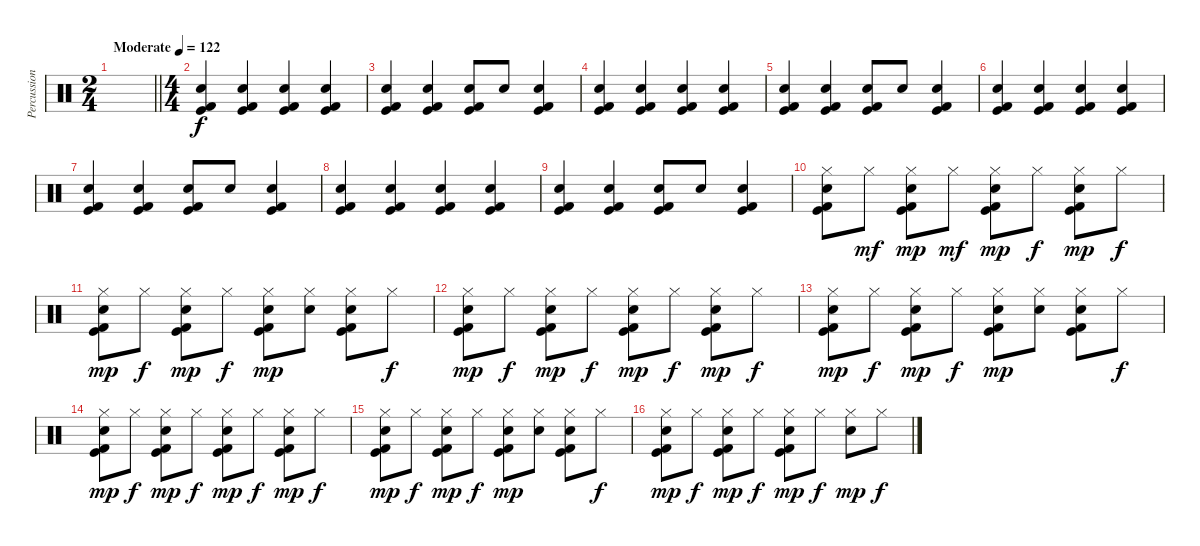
\track ("Percussion" "Percussion") {instrument percussion}
\staff {score}
\articulation defaults
\ts (2 4)
\tempo (122 "Moderate")
\clef neutral
\barLineRight lightlight
\ks c
|
\ts (4 4)
\section ("" "")
("Hand Clap (hit)" "Kick (hit)" "Kick (hit) 2").4 ("Hand Clap (hit)" "Kick (hit)" "Kick (hit) 2").4 ("Hand Clap (hit)" "Kick (hit)" "Kick (hit) 2").4 ("Hand Clap (hit)" "Kick (hit)" "Kick (hit) 2").4 |
("Hand Clap (hit)" "Kick (hit)" "Kick (hit) 2").4 ("Hand Clap (hit)" "Kick (hit)" "Kick (hit) 2").4 ("Hand Clap (hit)" "Kick (hit)" "Kick (hit) 2").8 "Hand Clap (hit)".8 ("Hand Clap (hit)" "Kick (hit)" "Kick (hit) 2").4 |
("Hand Clap (hit)" "Kick (hit)" "Kick (hit) 2").4 ("Hand Clap (hit)" "Kick (hit)" "Kick (hit) 2").4 ("Hand Clap (hit)" "Kick (hit)" "Kick (hit) 2").4 ("Hand Clap (hit)" "Kick (hit)" "Kick (hit) 2").4 |
("Hand Clap (hit)" "Kick (hit)" "Kick (hit) 2").4 ("Hand Clap (hit)" "Kick (hit)" "Kick (hit) 2").4 ("Hand Clap (hit)" "Kick (hit)" "Kick (hit) 2").8 "Hand Clap (hit)".8 ("Hand Clap (hit)" "Kick (hit)" "Kick (hit) 2").4 |
("Hand Clap (hit)" "Kick (hit)" "Kick (hit) 2").4 ("Hand Clap (hit)" "Kick (hit)" "Kick (hit) 2").4 ("Hand Clap (hit)" "Kick (hit)" "Kick (hit) 2").4 ("Hand Clap (hit)" "Kick (hit)" "Kick (hit) 2").4 |
("Hand Clap (hit)" "Kick (hit)" "Kick (hit) 2").4 ("Hand Clap (hit)" "Kick (hit)" "Kick (hit) 2").4 ("Hand Clap (hit)" "Kick (hit)" "Kick (hit) 2").8 "Hand Clap (hit)".8 ("Hand Clap (hit)" "Kick (hit)" "Kick (hit) 2").4 |
("Hand Clap (hit)" "Kick (hit)" "Kick (hit) 2").4 ("Hand Clap (hit)" "Kick (hit)" "Kick (hit) 2").4 ("Hand Clap (hit)" "Kick (hit)" "Kick (hit) 2").4 ("Hand Clap (hit)" "Kick (hit)" "Kick (hit) 2").4 |
("Hand Clap (hit)" "Kick (hit)" "Kick (hit) 2").4 ("Hand Clap (hit)" "Kick (hit)" "Kick (hit) 2").4 ("Hand Clap (hit)" "Kick (hit)" "Kick (hit) 2").8 "Hand Clap (hit)".8 ("Hand Clap (hit)" "Kick (hit)" "Kick (hit) 2").4 |
("Hi-Hat (closed)" "Hand Clap (hit)" "Kick (hit)" "Kick (hit) 2").8 "Hi-Hat (closed)".8{dy mf} ("Hi-Hat (closed)" "Hand Clap (hit)" "Kick (hit)" "Kick (hit) 2").8{dy mp} "Hi-Hat (closed)".8{dy mf} ("Hi-Hat (closed)" "Hand Clap (hit)" "Kick (hit)" "Kick (hit) 2").8{dy mp} "Hi-Hat (closed)".8{dy f} ("Hi-Hat (closed)" "Hand Clap (hit)" "Kick (hit)" "Kick (hit) 2").8{dy mp} "Hi-Hat (closed)".8{dy f} |
("Hi-Hat (closed)" "Hand Clap (hit)" "Kick (hit)" "Kick (hit) 2").8{dy mp} "Hi-Hat (closed)".8{dy f} ("Hi-Hat (closed)" "Hand Clap (hit)" "Kick (hit)" "Kick (hit) 2").8{dy mp} "Hi-Hat (closed)".8{dy f} ("Hi-Hat (closed)" "Hand Clap (hit)" "Kick (hit)" "Kick (hit) 2").8{dy mp} ("Hi-Hat (closed)" "Hand Clap (hit)").8 ("Hi-Hat (closed)" "Hand Clap (hit)" "Kick (hit)" "Kick (hit) 2").8 "Hi-Hat (closed)".8{dy f} |
("Hi-Hat (closed)" "Hand Clap (hit)" "Kick (hit)" "Kick (hit) 2").8{dy mp} "Hi-Hat (closed)".8{dy f} ("Hi-Hat (closed)" "Hand Clap (hit)" "Kick (hit)" "Kick (hit) 2").8{dy mp} "Hi-Hat (closed)".8{dy f} ("Hi-Hat (closed)" "Hand Clap (hit)" "Kick (hit)" "Kick (hit) 2").8{dy mp} "Hi-Hat (closed)".8{dy f} ("Hi-Hat (closed)" "Hand Clap (hit)" "Kick (hit)" "Kick (hit) 2").8{dy mp} "Hi-Hat (closed)".8{dy f} |
("Hi-Hat (closed)" "Hand Clap (hit)" "Kick (hit)" "Kick (hit) 2").8{dy mp} "Hi-Hat (closed)".8{dy f} ("Hi-Hat (closed)" "Hand Clap (hit)" "Kick (hit)" "Kick (hit) 2").8{dy mp} "Hi-Hat (closed)".8{dy f} ("Hi-Hat (closed)" "Hand Clap (hit)" "Kick (hit)" "Kick (hit) 2").8{dy mp} ("Hi-Hat (closed)" "Hand Clap (hit)").8 ("Hi-Hat (closed)" "Hand Clap (hit)" "Kick (hit)" "Kick (hit) 2").8 "Hi-Hat (closed)".8{dy f} |
("Hi-Hat (closed)" "Hand Clap (hit)" "Kick (hit)" "Kick (hit) 2").8{dy mp} "Hi-Hat (closed)".8{dy f} ("Hi-Hat (closed)" "Hand Clap (hit)" "Kick (hit)" "Kick (hit) 2").8{dy mp} "Hi-Hat (closed)".8{dy f} ("Hi-Hat (closed)" "Hand Clap (hit)" "Kick (hit)" "Kick (hit) 2").8{dy mp} "Hi-Hat (closed)".8{dy f} ("Hi-Hat (closed)" "Hand Clap (hit)" "Kick (hit)" "Kick (hit) 2").8{dy mp} "Hi-Hat (closed)".8{dy f} |
("Hi-Hat (closed)" "Hand Clap (hit)" "Kick (hit)" "Kick (hit) 2").8{dy mp} "Hi-Hat (closed)".8{dy f} ("Hi-Hat (closed)" "Hand Clap (hit)" "Kick (hit)" "Kick (hit) 2").8{dy mp} "Hi-Hat (closed)".8{dy f} ("Hi-Hat (closed)" "Hand Clap (hit)" "Kick (hit)" "Kick (hit) 2").8{dy mp} ("Hi-Hat (closed)" "Hand Clap (hit)").8 ("Hi-Hat (closed)" "Hand Clap (hit)" "Kick (hit)" "Kick (hit) 2").8 "Hi-Hat (closed)".8{dy f} |
("Hi-Hat (closed)" "Hand Clap (hit)" "Kick (hit)" "Kick (hit) 2").8{dy mp} "Hi-Hat (closed)".8{dy f} ("Hi-Hat (closed)" "Hand Clap (hit)" "Kick (hit)" "Kick (hit) 2").8{dy mp} "Hi-Hat (closed)".8{dy f} ("Hi-Hat (closed)" "Hand Clap (hit)" "Kick (hit)" "Kick (hit) 2").8{dy mp} "Hi-Hat (closed)".8{dy f} ("Hi-Hat (closed)" "Hand Clap (hit)").8{dy mp} "Hi-Hat (closed)".8{dy f}
